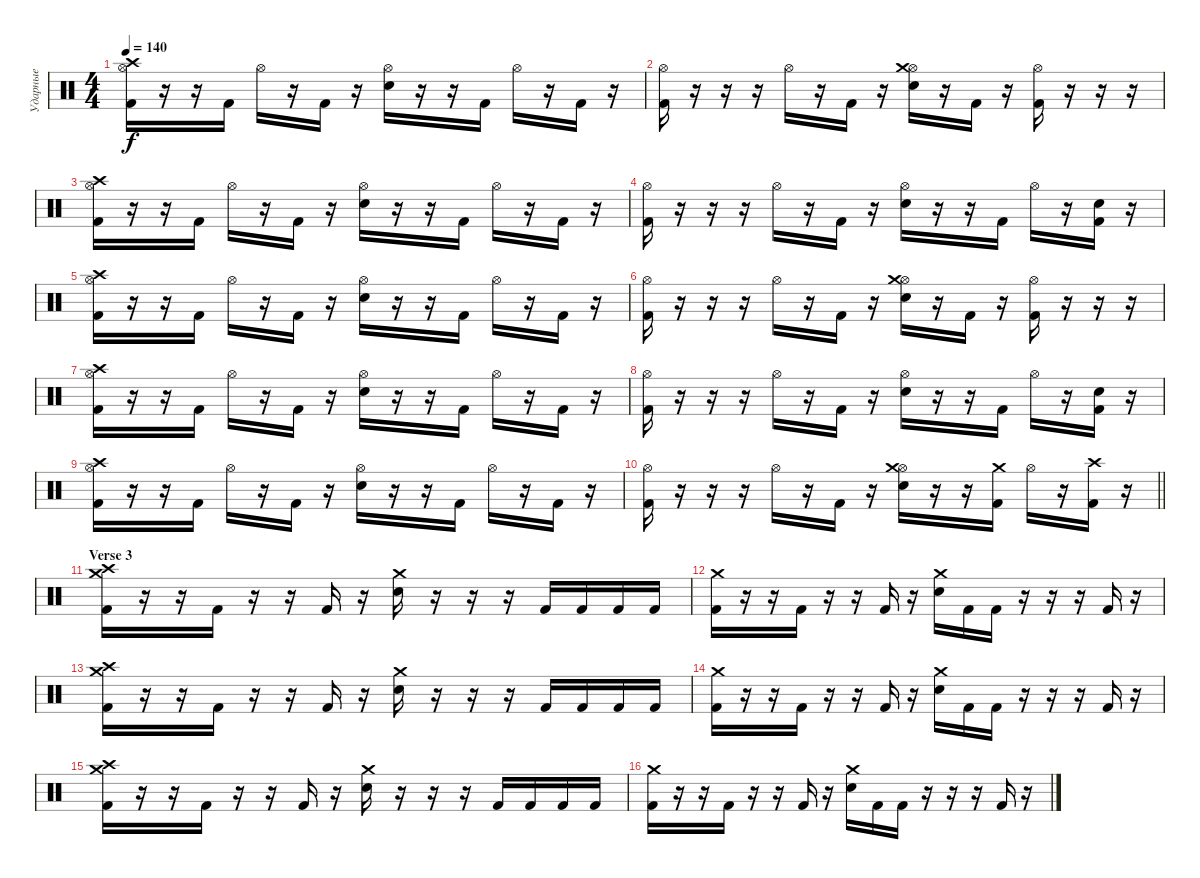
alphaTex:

\track ("Ударные" "Ударные") {instrument percussion}
\staff {score}
\articulation defaults
\ts (4 4)
\tempo 140
\clef neutral
\ks c
("Hi-Hat (open)" "Crash high (hit)" "Kick (hit) 2").16{dy f} r.16 r.16 "Kick (hit) 2".16 "Hi-Hat (open)".16 r.16 "Kick (hit) 2".16 r.16 ("Hi-Hat (open)" "Snare (hit) 2").16 r.16 r.16 "Kick (hit) 2".16 "Hi-Hat (open)".16 r.16 "Kick (hit) 2".16 r.16 |
("Hi-Hat (open)" "Kick (hit) 2").16 r.16 r.16 r.16 "Hi-Hat (open)".16 r.16 "Kick (hit) 2".16 r.16 ("Hi-Hat (open)" "Crash medium (hit)" "Snare (hit) 2").16 r.16 "Kick (hit) 2".16 r.16 ("Hi-Hat (open)" "Kick (hit) 2").16 r.16 r.16 r.16 |
("Hi-Hat (open)" "Crash high (hit)" "Kick (hit) 2").16 r.16 r.16 "Kick (hit) 2".16 "Hi-Hat (open)".16 r.16 "Kick (hit) 2".16 r.16 ("Hi-Hat (open)" "Snare (hit) 2").16 r.16 r.16 "Kick (hit) 2".16 "Hi-Hat (open)".16 r.16 "Kick (hit) 2".16 r.16 |
("Hi-Hat (open)" "Kick (hit) 2").16 r.16 r.16 r.16 "Hi-Hat (open)".16 r.16 "Kick (hit) 2".16 r.16 ("Hi-Hat (open)" "Snare (hit) 2").16 r.16 r.16 "Kick (hit) 2".16 "Hi-Hat (open)".16 r.16 ("Snare (hit) 2" "Kick (hit) 2").16 r.16 |
("Hi-Hat (open)" "Crash high (hit)" "Kick (hit) 2").16 r.16 r.16 "Kick (hit) 2".16 "Hi-Hat (open)".16 r.16 "Kick (hit) 2".16 r.16 ("Hi-Hat (open)" "Snare (hit) 2").16 r.16 r.16 "Kick (hit) 2".16 "Hi-Hat (open)".16 r.16 "Kick (hit) 2".16 r.16 |
("Hi-Hat (open)" "Kick (hit) 2").16 r.16 r.16 r.16 "Hi-Hat (open)".16 r.16 "Kick (hit) 2".16 r.16 ("Hi-Hat (open)" "Crash medium (hit)" "Snare (hit) 2").16 r.16 "Kick (hit) 2".16 r.16 ("Hi-Hat (open)" "Kick (hit) 2").16 r.16 r.16 r.16 |
("Hi-Hat (open)" "Crash high (hit)" "Kick (hit) 2").16 r.16 r.16 "Kick (hit) 2".16 "Hi-Hat (open)".16 r.16 "Kick (hit) 2".16 r.16 ("Hi-Hat (open)" "Snare (hit) 2").16 r.16 r.16 "Kick (hit) 2".16 "Hi-Hat (open)".16 r.16 "Kick (hit) 2".16 r.16 |
("Hi-Hat (open)" "Kick (hit) 2").16 r.16 r.16 r.16 "Hi-Hat (open)".16 r.16 "Kick (hit) 2".16 r.16 ("Hi-Hat (open)" "Snare (hit) 2").16 r.16 r.16 "Kick (hit) 2".16 "Hi-Hat (open)".16 r.16 ("Snare (hit) 2" "Kick (hit) 2").16 r.16 |
("Hi-Hat (open)" "Crash high (hit)" "Kick (hit) 2").16 r.16 r.16 "Kick (hit) 2".16 "Hi-Hat (open)".16 r.16 "Kick (hit) 2".16 r.16 ("Hi-Hat (open)" "Snare (hit) 2").16 r.16 r.16 "Kick (hit) 2".16 "Hi-Hat (open)".16 r.16 "Kick (hit) 2".16 r.16 |
\barLineRight lightlight
("Hi-Hat (open)" "Kick (hit) 2").16 r.16 r.16 r.16 "Hi-Hat (open)".16 r.16 "Kick (hit) 2".16 r.16 ("Hi-Hat (open)" "Crash medium (hit)" "Snare (hit) 2").16 r.16 r.16 ("Crash medium (hit)" "Kick (hit) 2").16 "Hi-Hat (open)".16 r.16 ("Crash high (hit)" "Kick (hit) 2").16 r.16 |
\section ("" "Verse 3")
("Crash medium (hit)" "Crash high (hit)" "Kick (hit) 2").16 r.16 r.16 "Kick (hit) 2".16 r.16 r.16 "Kick (hit) 2".16 r.16 ("Crash medium (hit)" "Snare (hit) 2").16 r.16 r.16 r.16 "Kick (hit) 2".16 "Kick (hit) 2".16 "Kick (hit) 2".16 "Kick (hit) 2".16 |
("Crash medium (hit)" "Kick (hit) 2").16 r.16 r.16 "Kick (hit) 2".16 r.16 r.16 "Kick (hit) 2".16 r.16 ("Crash medium (hit)" "Snare (hit) 2").16 "Kick (hit) 2".16 "Kick (hit) 2".16 r.16 r.16 r.16 "Kick (hit) 2".16 r.16 |
("Crash medium (hit)" "Crash high (hit)" "Kick (hit) 2").16 r.16 r.16 "Kick (hit) 2".16 r.16 r.16 "Kick (hit) 2".16 r.16 ("Crash medium (hit)" "Snare (hit) 2").16 r.16 r.16 r.16 "Kick (hit) 2".16 "Kick (hit) 2".16 "Kick (hit) 2".16 "Kick (hit) 2".16 |
("Crash medium (hit)" "Kick (hit) 2").16 r.16 r.16 "Kick (hit) 2".16 r.16 r.16 "Kick (hit) 2".16 r.16 ("Crash medium (hit)" "Snare (hit) 2").16 "Kick (hit) 2".16 "Kick (hit) 2".16 r.16 r.16 r.16 "Kick (hit) 2".16 r.16 |
("Crash medium (hit)" "Crash high (hit)" "Kick (hit) 2").16 r.16 r.16 "Kick (hit) 2".16 r.16 r.16 "Kick (hit) 2".16 r.16 ("Crash medium (hit)" "Snare (hit) 2").16 r.16 r.16 r.16 "Kick (hit) 2".16 "Kick (hit) 2".16 "Kick (hit) 2".16 "Kick (hit) 2".16 |
("Crash medium (hit)" "Kick (hit) 2").16 r.16 r.16 "Kick (hit) 2".16 r.16 r.16 "Kick (hit) 2".16 r.16 ("Crash medium (hit)" "Snare (hit) 2").16 "Kick (hit) 2".16 "Kick (hit) 2".16 r.16 r.16 r.16 "Kick (hit) 2".16 r.16
